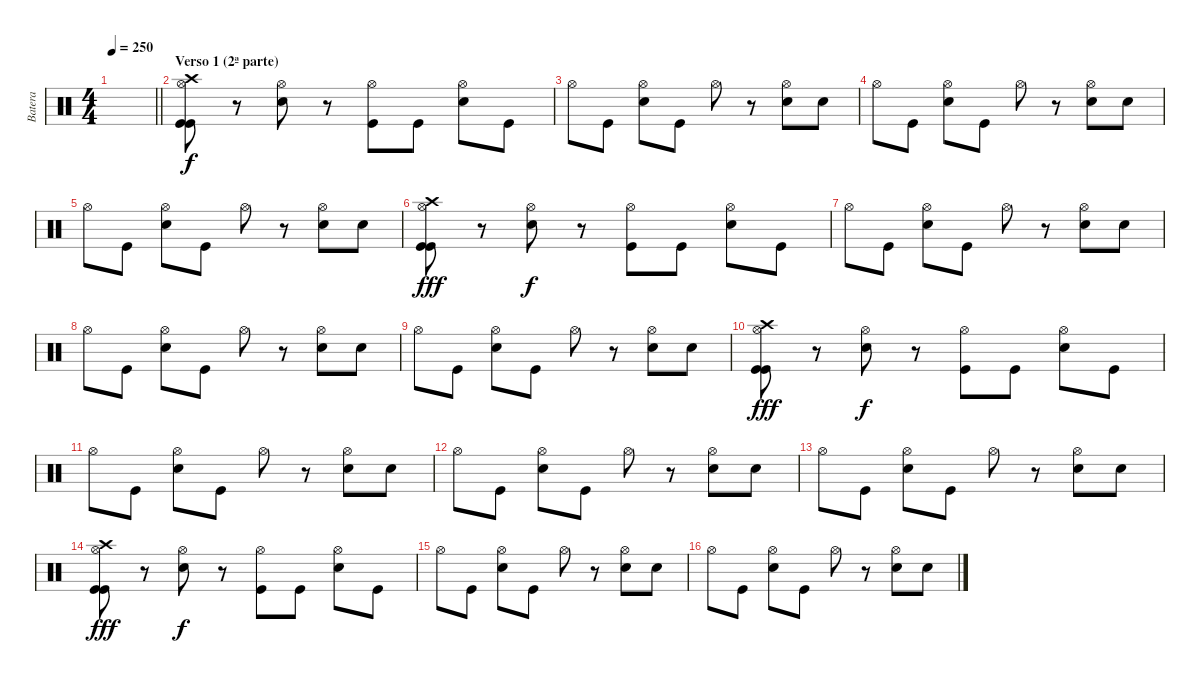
\track ("Batera" "Batera") {instrument percussion}
\staff {score}
\articulation defaults
\ts (4 4)
\tempo 250
\clef neutral
\barLineRight lightlight
\ks c
|
\section ("" "Verso 1 (2ª parte)")
("Hi-Hat (open)" "Crash high (hit)" "Kick (hit)" "Kick (hit)").8 r.8 ("Hi-Hat (open)" "Electric Snare (hit)").8{dy f} r.8 ("Hi-Hat (open)" "Kick (hit)").8 "Kick (hit)".8 ("Hi-Hat (open)" "Electric Snare (hit)").8 "Kick (hit)".8 |
"Hi-Hat (open)".8 "Kick (hit)".8 ("Hi-Hat (open)" "Electric Snare (hit)").8 "Kick (hit)".8 "Hi-Hat (open)".8 r.8 ("Hi-Hat (open)" "Electric Snare (hit)").8 "Electric Snare (hit)".8 |
"Hi-Hat (open)".8 "Kick (hit)".8 ("Hi-Hat (open)" "Electric Snare (hit)").8 "Kick (hit)".8 "Hi-Hat (open)".8 r.8 ("Hi-Hat (open)" "Electric Snare (hit)").8 "Electric Snare (hit)".8 |
"Hi-Hat (open)".8 "Kick (hit)".8 ("Hi-Hat (open)" "Electric Snare (hit)").8 "Kick (hit)".8 "Hi-Hat (open)".8 r.8 ("Hi-Hat (open)" "Electric Snare (hit)").8 "Electric Snare (hit)".8 |
("Hi-Hat (open)" "Crash high (hit)" "Kick (hit)" "Kick (hit)").8{dy fff} r.8 ("Hi-Hat (open)" "Electric Snare (hit)").8{dy f} r.8 ("Hi-Hat (open)" "Kick (hit)").8 "Kick (hit)".8 ("Hi-Hat (open)" "Electric Snare (hit)").8 "Kick (hit)".8 |
"Hi-Hat (open)".8 "Kick (hit)".8 ("Hi-Hat (open)" "Electric Snare (hit)").8 "Kick (hit)".8 "Hi-Hat (open)".8 r.8 ("Hi-Hat (open)" "Electric Snare (hit)").8 "Electric Snare (hit)".8 |
"Hi-Hat (open)".8 "Kick (hit)".8 ("Hi-Hat (open)" "Electric Snare (hit)").8 "Kick (hit)".8 "Hi-Hat (open)".8 r.8 ("Hi-Hat (open)" "Electric Snare (hit)").8 "Electric Snare (hit)".8 |
"Hi-Hat (open)".8 "Kick (hit)".8 ("Hi-Hat (open)" "Electric Snare (hit)").8 "Kick (hit)".8 "Hi-Hat (open)".8 r.8 ("Hi-Hat (open)" "Electric Snare (hit)").8 "Electric Snare (hit)".8 |
("Hi-Hat (open)" "Crash high (hit)" "Kick (hit)" "Kick (hit)").8{dy fff} r.8 ("Hi-Hat (open)" "Electric Snare (hit)").8{dy f} r.8 ("Hi-Hat (open)" "Kick (hit)").8 "Kick (hit)".8 ("Hi-Hat (open)" "Electric Snare (hit)").8 "Kick (hit)".8 |
"Hi-Hat (open)".8 "Kick (hit)".8 ("Hi-Hat (open)" "Electric Snare (hit)").8 "Kick (hit)".8 "Hi-Hat (open)".8 r.8 ("Hi-Hat (open)" "Electric Snare (hit)").8 "Electric Snare (hit)".8 |
"Hi-Hat (open)".8 "Kick (hit)".8 ("Hi-Hat (open)" "Electric Snare (hit)").8 "Kick (hit)".8 "Hi-Hat (open)".8 r.8 ("Hi-Hat (open)" "Electric Snare (hit)").8 "Electric Snare (hit)".8 |
"Hi-Hat (open)".8 "Kick (hit)".8 ("Hi-Hat (open)" "Electric Snare (hit)").8 "Kick (hit)".8 "Hi-Hat (open)".8 r.8 ("Hi-Hat (open)" "Electric Snare (hit)").8 "Electric Snare (hit)".8 |
("Hi-Hat (open)" "Crash high (hit)" "Kick (hit)" "Kick (hit)").8{dy fff} r.8 ("Hi-Hat (open)" "Electric Snare (hit)").8{dy f} r.8 ("Hi-Hat (open)" "Kick (hit)").8 "Kick (hit)".8 ("Hi-Hat (open)" "Electric Snare (hit)").8 "Kick (hit)".8 |
"Hi-Hat (open)".8 "Kick (hit)".8 ("Hi-Hat (open)" "Electric Snare (hit)").8 "Kick (hit)".8 "Hi-Hat (open)".8 r.8 ("Hi-Hat (open)" "Electric Snare (hit)").8 "Electric Snare (hit)".8 |
"Hi-Hat (open)".8 "Kick (hit)".8 ("Hi-Hat (open)" "Electric Snare (hit)").8 "Kick (hit)".8 "Hi-Hat (open)".8 r.8 ("Hi-Hat (open)" "Electric Snare (hit)").8 "Electric Snare (hit)".8
